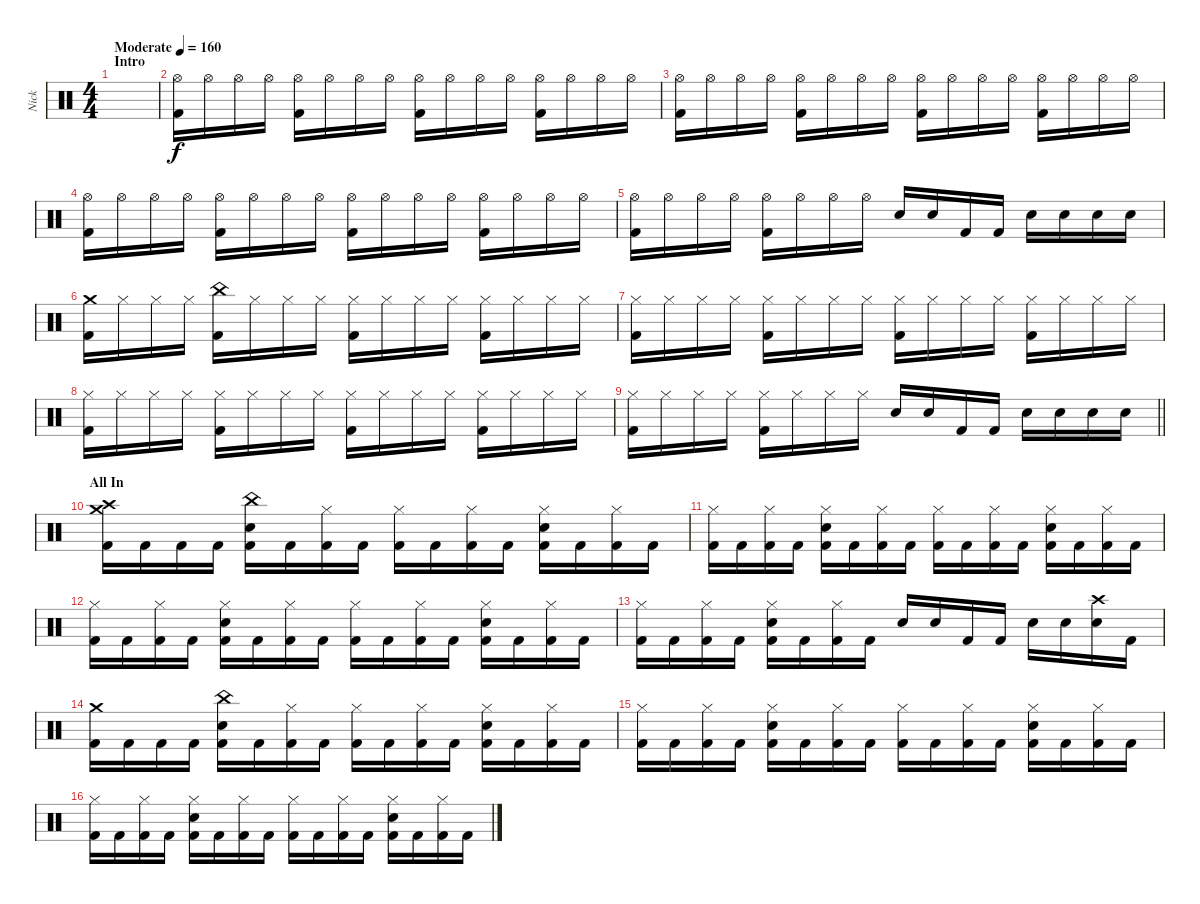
\track ("Nick" "Nick") {instrument percussion}
\staff {score}
\articulation defaults
\ts (4 4)
\section ("" "Intro")
\tempo (160 "Moderate")
\clef neutral
\ks c
|
("Kick (hit) 2" "Hi-Hat (open)").16 "Hi-Hat (open)".16 "Hi-Hat (open)".16 "Hi-Hat (open)".16 ("Kick (hit) 2" "Hi-Hat (open)").16 "Hi-Hat (open)".16 "Hi-Hat (open)".16 "Hi-Hat (open)".16 ("Kick (hit) 2" "Hi-Hat (open)").16 "Hi-Hat (open)".16 "Hi-Hat (open)".16 "Hi-Hat (open)".16 ("Kick (hit) 2" "Hi-Hat (open)").16 "Hi-Hat (open)".16 "Hi-Hat (open)".16 "Hi-Hat (open)".16 |
("Kick (hit) 2" "Hi-Hat (open)").16 "Hi-Hat (open)".16 "Hi-Hat (open)".16 "Hi-Hat (open)".16 ("Kick (hit) 2" "Hi-Hat (open)").16 "Hi-Hat (open)".16 "Hi-Hat (open)".16 "Hi-Hat (open)".16 ("Kick (hit) 2" "Hi-Hat (open)").16 "Hi-Hat (open)".16 "Hi-Hat (open)".16 "Hi-Hat (open)".16 ("Kick (hit) 2" "Hi-Hat (open)").16 "Hi-Hat (open)".16 "Hi-Hat (open)".16 "Hi-Hat (open)".16 |
("Kick (hit) 2" "Hi-Hat (open)").16 "Hi-Hat (open)".16 "Hi-Hat (open)".16 "Hi-Hat (open)".16 ("Kick (hit) 2" "Hi-Hat (open)").16 "Hi-Hat (open)".16 "Hi-Hat (open)".16 "Hi-Hat (open)".16 ("Kick (hit) 2" "Hi-Hat (open)").16 "Hi-Hat (open)".16 "Hi-Hat (open)".16 "Hi-Hat (open)".16 ("Kick (hit) 2" "Hi-Hat (open)").16 "Hi-Hat (open)".16 "Hi-Hat (open)".16 "Hi-Hat (open)".16 |
("Kick (hit) 2" "Hi-Hat (open)").16 "Hi-Hat (open)".16 "Hi-Hat (open)".16 "Hi-Hat (open)".16 ("Kick (hit) 2" "Hi-Hat (open)").16 "Hi-Hat (open)".16 "Hi-Hat (open)".16 "Hi-Hat (open)".16 "Electric Snare (hit)".16 "Electric Snare (hit)".16 "Kick (hit) 2".16 "Kick (hit) 2".16 "Electric Snare (hit)".16 "Electric Snare (hit)".16 "Electric Snare (hit)".16 "Electric Snare (hit)".16 |
("Kick (hit) 2" "Crash medium (hit)").16 "Hi-Hat (closed)".16 "Hi-Hat (closed)".16 "Hi-Hat (closed)".16 ("Kick (hit) 2" "China (hit)").16 "Hi-Hat (closed)".16 "Hi-Hat (closed)".16 "Hi-Hat (closed)".16 ("Kick (hit) 2" "Hi-Hat (closed)").16 "Hi-Hat (closed)".16 "Hi-Hat (closed)".16 "Hi-Hat (closed)".16 ("Kick (hit) 2" "Hi-Hat (closed)").16 "Hi-Hat (closed)".16 "Hi-Hat (closed)".16 "Hi-Hat (closed)".16 |
("Kick (hit) 2" "Hi-Hat (closed)").16 "Hi-Hat (closed)".16 "Hi-Hat (closed)".16 "Hi-Hat (closed)".16 ("Kick (hit) 2" "Hi-Hat (closed)").16 "Hi-Hat (closed)".16 "Hi-Hat (closed)".16 "Hi-Hat (closed)".16 ("Kick (hit) 2" "Hi-Hat (closed)").16 "Hi-Hat (closed)".16 "Hi-Hat (closed)".16 "Hi-Hat (closed)".16 ("Kick (hit) 2" "Hi-Hat (closed)").16 "Hi-Hat (closed)".16 "Hi-Hat (closed)".16 "Hi-Hat (closed)".16 |
("Kick (hit) 2" "Hi-Hat (closed)").16 "Hi-Hat (closed)".16 "Hi-Hat (closed)".16 "Hi-Hat (closed)".16 ("Kick (hit) 2" "Hi-Hat (closed)").16 "Hi-Hat (closed)".16 "Hi-Hat (closed)".16 "Hi-Hat (closed)".16 ("Kick (hit) 2" "Hi-Hat (closed)").16 "Hi-Hat (closed)".16 "Hi-Hat (closed)".16 "Hi-Hat (closed)".16 ("Kick (hit) 2" "Hi-Hat (closed)").16 "Hi-Hat (closed)".16 "Hi-Hat (closed)".16 "Hi-Hat (closed)".16 |
\barLineRight lightlight
("Kick (hit) 2" "Hi-Hat (closed)").16 "Hi-Hat (closed)".16 "Hi-Hat (closed)".16 "Hi-Hat (closed)".16 ("Kick (hit) 2" "Hi-Hat (closed)").16 "Hi-Hat (closed)".16 "Hi-Hat (closed)".16 "Hi-Hat (closed)".16 "Electric Snare (hit)".16 "Electric Snare (hit)".16 "Kick (hit) 2".16 "Kick (hit) 2".16 "Electric Snare (hit)".16 "Electric Snare (hit)".16 "Electric Snare (hit)".16 "Electric Snare (hit)".16 |
\section ("" "All In")
("Kick (hit) 2" "Crash medium (hit)" "Crash high (hit)").16 "Kick (hit) 2".16 "Kick (hit) 2".16 "Kick (hit) 2".16 ("Kick (hit) 2" "Electric Snare (hit)" "China (hit)").16 "Kick (hit) 2".16 ("Kick (hit) 2" "Hi-Hat (closed)").16 "Kick (hit) 2".16 ("Kick (hit) 2" "Hi-Hat (closed)").16 "Kick (hit) 2".16 ("Kick (hit) 2" "Hi-Hat (closed)").16 "Kick (hit) 2".16 ("Kick (hit) 2" "Electric Snare (hit)" "Hi-Hat (closed)").16 "Kick (hit) 2".16 ("Kick (hit) 2" "Hi-Hat (closed)").16 "Kick (hit) 2".16 |
("Kick (hit) 2" "Hi-Hat (closed)").16 "Kick (hit) 2".16 ("Kick (hit) 2" "Hi-Hat (closed)").16 "Kick (hit) 2".16 ("Kick (hit) 2" "Electric Snare (hit)" "Hi-Hat (closed)").16 "Kick (hit) 2".16 ("Kick (hit) 2" "Hi-Hat (closed)").16 "Kick (hit) 2".16 ("Kick (hit) 2" "Hi-Hat (closed)").16 "Kick (hit) 2".16 ("Kick (hit) 2" "Hi-Hat (closed)").16 "Kick (hit) 2".16 ("Kick (hit) 2" "Electric Snare (hit)" "Hi-Hat (closed)").16 "Kick (hit) 2".16 ("Kick (hit) 2" "Hi-Hat (closed)").16 "Kick (hit) 2".16 |
("Kick (hit) 2" "Hi-Hat (closed)").16 "Kick (hit) 2".16 ("Kick (hit) 2" "Hi-Hat (closed)").16 "Kick (hit) 2".16 ("Kick (hit) 2" "Electric Snare (hit)" "Hi-Hat (closed)").16 "Kick (hit) 2".16 ("Kick (hit) 2" "Hi-Hat (closed)").16 "Kick (hit) 2".16 ("Kick (hit) 2" "Hi-Hat (closed)").16 "Kick (hit) 2".16 ("Kick (hit) 2" "Hi-Hat (closed)").16 "Kick (hit) 2".16 ("Kick (hit) 2" "Electric Snare (hit)" "Hi-Hat (closed)").16 "Kick (hit) 2".16 ("Kick (hit) 2" "Hi-Hat (closed)").16 "Kick (hit) 2".16 |
("Kick (hit) 2" "Hi-Hat (closed)").16 "Kick (hit) 2".16 ("Kick (hit) 2" "Hi-Hat (closed)").16 "Kick (hit) 2".16 ("Kick (hit) 2" "Electric Snare (hit)" "Hi-Hat (closed)").16 "Kick (hit) 2".16 ("Kick (hit) 2" "Hi-Hat (closed)").16 "Kick (hit) 2".16 "Electric Snare (hit)".16 "Electric Snare (hit)".16 "Kick (hit) 2".16 "Kick (hit) 2".16 "Electric Snare (hit)".16 "Electric Snare (hit)".16 ("Electric Snare (hit)" "Crash high (hit)").16 "Kick (hit) 2".16 |
("Kick (hit) 2" "Crash medium (hit)").16 "Kick (hit) 2".16 "Kick (hit) 2".16 "Kick (hit) 2".16 ("Kick (hit) 2" "Electric Snare (hit)" "China (hit)").16 "Kick (hit) 2".16 ("Kick (hit) 2" "Hi-Hat (closed)").16 "Kick (hit) 2".16 ("Kick (hit) 2" "Hi-Hat (closed)").16 "Kick (hit) 2".16 ("Kick (hit) 2" "Hi-Hat (closed)").16 "Kick (hit) 2".16 ("Kick (hit) 2" "Electric Snare (hit)" "Hi-Hat (closed)").16 "Kick (hit) 2".16 ("Kick (hit) 2" "Hi-Hat (closed)").16 "Kick (hit) 2".16 |
("Kick (hit) 2" "Hi-Hat (closed)").16 "Kick (hit) 2".16 ("Kick (hit) 2" "Hi-Hat (closed)").16 "Kick (hit) 2".16 ("Kick (hit) 2" "Electric Snare (hit)" "Hi-Hat (closed)").16 "Kick (hit) 2".16 ("Kick (hit) 2" "Hi-Hat (closed)").16 "Kick (hit) 2".16 ("Kick (hit) 2" "Hi-Hat (closed)").16 "Kick (hit) 2".16 ("Kick (hit) 2" "Hi-Hat (closed)").16 "Kick (hit) 2".16 ("Kick (hit) 2" "Electric Snare (hit)" "Hi-Hat (closed)").16 "Kick (hit) 2".16 ("Kick (hit) 2" "Hi-Hat (closed)").16 "Kick (hit) 2".16 |
("Kick (hit) 2" "Hi-Hat (closed)").16 "Kick (hit) 2".16 ("Kick (hit) 2" "Hi-Hat (closed)").16 "Kick (hit) 2".16 ("Kick (hit) 2" "Electric Snare (hit)" "Hi-Hat (closed)").16 "Kick (hit) 2".16 ("Kick (hit) 2" "Hi-Hat (closed)").16 "Kick (hit) 2".16 ("Kick (hit) 2" "Hi-Hat (closed)").16 "Kick (hit) 2".16 ("Kick (hit) 2" "Hi-Hat (closed)").16 "Kick (hit) 2".16 ("Kick (hit) 2" "Electric Snare (hit)" "Hi-Hat (closed)").16 "Kick (hit) 2".16 ("Kick (hit) 2" "Hi-Hat (closed)").16 "Kick (hit) 2".16
